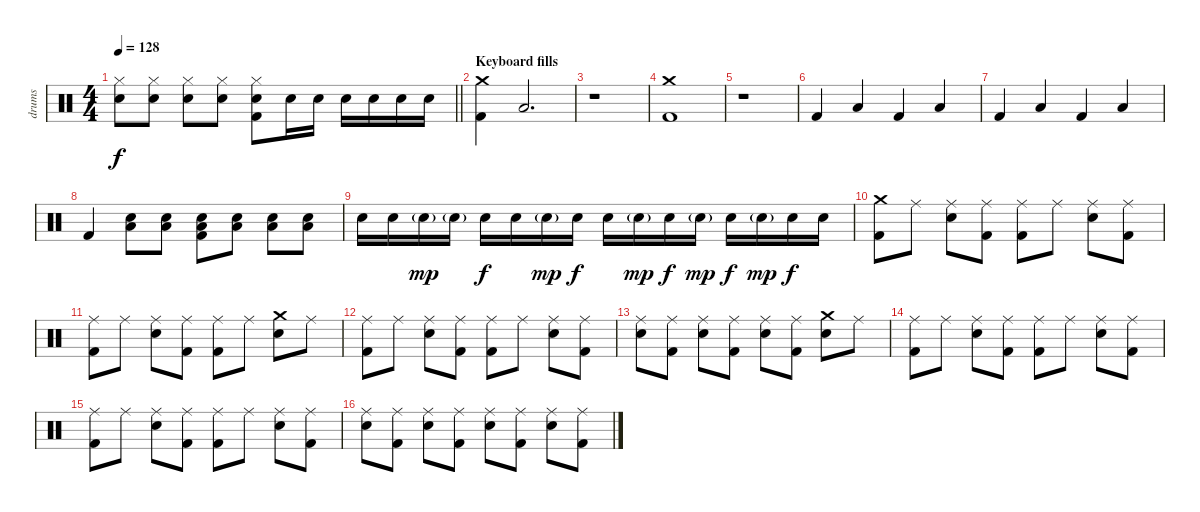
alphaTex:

\track ("drums" "drums") {instrument percussion}
\staff {score}
\articulation defaults
\ts (4 4)
\tempo 128
\clef neutral
\barLineRight lightlight
\ks c
("Hi-Hat (closed)" "Snare (hit) 2").8{dy f} ("Hi-Hat (closed)" "Snare (hit) 2").8 ("Hi-Hat (closed)" "Snare (hit) 2").8 ("Hi-Hat (closed)" "Snare (hit) 2").8 ("Hi-Hat (closed)" "Snare (hit) 2" "Kick (hit) 2").8 "Snare (hit) 2".16 "Snare (hit) 2".16 "Snare (hit) 2".16 "Snare (hit) 2".16 "Snare (hit) 2".16 "Snare (hit) 2".16 |
\section ("" "Keyboard fills")
("Crash medium (hit)" "Kick (hit) 2").4 "Low Floor Tom (hit)".2{d} |
r.1 |
("Crash medium (hit)" "Kick (hit) 2").1 |
r.1 |
"Kick (hit) 2".4 "Low Floor Tom (hit)".4 "Kick (hit) 2".4 "Low Floor Tom (hit)".4 |
"Kick (hit) 2".4 "Low Floor Tom (hit)".4 "Kick (hit) 2".4 "Low Floor Tom (hit)".4 |
"Kick (hit) 2".4 ("Snare (hit) 2" "Low Floor Tom (hit)").8 ("Snare (hit) 2" "Low Floor Tom (hit)").8 ("Snare (hit) 2" "Low Floor Tom (hit)" "Kick (hit) 2").8 ("Snare (hit) 2" "Low Floor Tom (hit)").8 ("Snare (hit) 2" "Low Floor Tom (hit)").8 ("Snare (hit) 2" "Low Floor Tom (hit)").8 |
"Snare (hit) 2".16 "Snare (hit) 2".16 "Snare (hit) 2"{g}.16{dy mp} "Snare (hit) 2"{g}.16 "Snare (hit) 2".16{dy f} "Snare (hit) 2".16 "Snare (hit) 2"{g}.16{dy mp} "Snare (hit) 2".16{dy f} "Snare (hit) 2".16 "Snare (hit) 2"{g}.16{dy mp} "Snare (hit) 2".16{dy f} "Snare (hit) 2"{g}.16{dy mp} "Snare (hit) 2".16{dy f} "Snare (hit) 2"{g}.16{dy mp} "Snare (hit) 2".16{dy f} "Snare (hit) 2".16 |
("Crash medium (hit)" "Kick (hit) 2").8 "Ride (middle)".8 ("Ride (middle)" "Snare (hit) 2").8 ("Ride (middle)" "Kick (hit) 2").8 ("Ride (middle)" "Kick (hit) 2").8 "Ride (middle)".8 ("Ride (middle)" "Snare (hit) 2").8 ("Ride (middle)" "Kick (hit) 2").8 |
("Ride (middle)" "Kick (hit) 2").8 "Ride (middle)".8 ("Ride (middle)" "Snare (hit) 2").8 ("Ride (middle)" "Kick (hit) 2").8 ("Ride (middle)" "Kick (hit) 2").8 "Ride (middle)".8 ("Crash medium (hit)" "Snare (hit) 2").8 "Ride (middle)".8 |
("Ride (middle)" "Kick (hit) 2").8 "Ride (middle)".8 ("Ride (middle)" "Snare (hit) 2").8 ("Ride (middle)" "Kick (hit) 2").8 ("Ride (middle)" "Kick (hit) 2").8 "Ride (middle)".8 ("Ride (middle)" "Snare (hit) 2").8 ("Ride (middle)" "Kick (hit) 2").8 |
("Ride (middle)" "Snare (hit) 2").8 ("Ride (middle)" "Kick (hit) 2").8 ("Ride (middle)" "Snare (hit) 2").8 ("Ride (middle)" "Kick (hit) 2").8 ("Ride (middle)" "Snare (hit) 2").8 ("Ride (middle)" "Kick (hit) 2").8 ("Crash medium (hit)" "Snare (hit) 2").8 "Ride (middle)".8 |
("Ride (middle)" "Kick (hit) 2").8 "Ride (middle)".8 ("Ride (middle)" "Snare (hit) 2").8 ("Ride (middle)" "Kick (hit) 2").8 ("Ride (middle)" "Kick (hit) 2").8 "Ride (middle)".8 ("Ride (middle)" "Snare (hit) 2").8 ("Ride (middle)" "Kick (hit) 2").8 |
("Ride (middle)" "Kick (hit) 2").8 "Ride (middle)".8 ("Ride (middle)" "Snare (hit) 2").8 ("Ride (middle)" "Kick (hit) 2").8 ("Ride (middle)" "Kick (hit) 2").8 "Ride (middle)".8 ("Ride (middle)" "Snare (hit) 2").8 ("Ride (middle)" "Kick (hit) 2").8 |
("Ride (middle)" "Snare (hit) 2").8 ("Ride (middle)" "Kick (hit) 2").8 ("Ride (middle)" "Snare (hit) 2").8 ("Ride (middle)" "Kick (hit) 2").8 ("Ride (middle)" "Snare (hit) 2").8 ("Ride (middle)" "Kick (hit) 2").8 ("Ride (middle)" "Snare (hit) 2").8 ("Ride (middle)" "Kick (hit) 2").8
